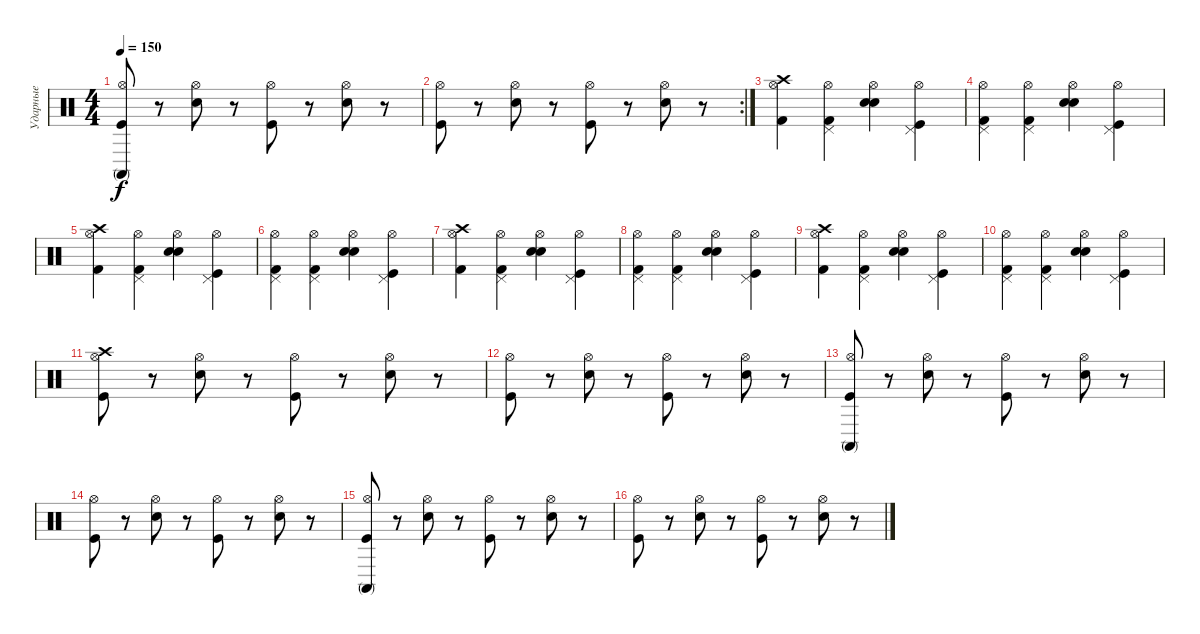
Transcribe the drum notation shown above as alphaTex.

\track ("Ударные" "Ударные") {instrument percussion}
\staff {score}
\articulation defaults
\ts (4 4)
\tempo 150
\clef neutral
\ks c
("Hi-Hat (open)" "Kick (hit)" "Conga high (mute)").8{dy f} r.8 ("Hi-Hat (open)" "Snare (hit) 2").8 r.8 ("Hi-Hat (open)" "Kick (hit)").8 r.8 ("Hi-Hat (open)" "Snare (hit) 2").8 r.8 |
\rc 2
("Hi-Hat (open)" "Kick (hit)").8 r.8 ("Hi-Hat (open)" "Snare (hit) 2").8 r.8 ("Hi-Hat (open)" "Kick (hit)").8 r.8 ("Hi-Hat (open)" "Snare (hit) 2").8 r.8 |
("Kick (hit) 2" "Crash high (hit)" "Hi-Hat (open)").4 ("Kick (hit) 2" "Pedal Hi-Hat (hit)" "Hi-Hat (open)").4 ("Snare (hit) 2" "Electric Snare (hit)" "Hi-Hat (open)").4 ("Kick (hit)" "Pedal Hi-Hat (hit)" "Hi-Hat (open)").4 |
("Kick (hit) 2" "Pedal Hi-Hat (hit)" "Hi-Hat (open)").4 ("Kick (hit) 2" "Pedal Hi-Hat (hit)" "Hi-Hat (open)").4 ("Snare (hit) 2" "Electric Snare (hit)" "Hi-Hat (open)").4 ("Kick (hit)" "Pedal Hi-Hat (hit)" "Hi-Hat (open)").4 |
("Kick (hit) 2" "Crash high (hit)" "Hi-Hat (open)").4 ("Kick (hit) 2" "Pedal Hi-Hat (hit)" "Hi-Hat (open)").4 ("Snare (hit) 2" "Electric Snare (hit)" "Hi-Hat (open)").4 ("Kick (hit)" "Pedal Hi-Hat (hit)" "Hi-Hat (open)").4 |
("Kick (hit) 2" "Pedal Hi-Hat (hit)" "Hi-Hat (open)").4 ("Kick (hit) 2" "Pedal Hi-Hat (hit)" "Hi-Hat (open)").4 ("Snare (hit) 2" "Electric Snare (hit)" "Hi-Hat (open)").4 ("Kick (hit)" "Pedal Hi-Hat (hit)" "Hi-Hat (open)").4 |
("Kick (hit) 2" "Crash high (hit)" "Hi-Hat (open)").4 ("Kick (hit) 2" "Pedal Hi-Hat (hit)" "Hi-Hat (open)").4 ("Snare (hit) 2" "Electric Snare (hit)" "Hi-Hat (open)").4 ("Kick (hit)" "Pedal Hi-Hat (hit)" "Hi-Hat (open)").4 |
("Kick (hit) 2" "Pedal Hi-Hat (hit)" "Hi-Hat (open)").4 ("Kick (hit) 2" "Pedal Hi-Hat (hit)" "Hi-Hat (open)").4 ("Snare (hit) 2" "Electric Snare (hit)" "Hi-Hat (open)").4 ("Kick (hit)" "Pedal Hi-Hat (hit)" "Hi-Hat (open)").4 |
("Kick (hit) 2" "Crash high (hit)" "Hi-Hat (open)").4 ("Kick (hit) 2" "Pedal Hi-Hat (hit)" "Hi-Hat (open)").4 ("Snare (hit) 2" "Electric Snare (hit)" "Hi-Hat (open)").4 ("Kick (hit)" "Pedal Hi-Hat (hit)" "Hi-Hat (open)").4 |
("Kick (hit) 2" "Pedal Hi-Hat (hit)" "Hi-Hat (open)").4 ("Kick (hit) 2" "Pedal Hi-Hat (hit)" "Hi-Hat (open)").4 ("Snare (hit) 2" "Electric Snare (hit)" "Hi-Hat (open)").4 ("Kick (hit)" "Pedal Hi-Hat (hit)" "Hi-Hat (open)").4 |
("Hi-Hat (open)" "Kick (hit)" "Crash high (hit)").8 r.8 ("Hi-Hat (open)" "Snare (hit) 2").8 r.8 ("Hi-Hat (open)" "Kick (hit)").8 r.8 ("Hi-Hat (open)" "Snare (hit) 2").8 r.8 |
("Hi-Hat (open)" "Kick (hit)").8 r.8 ("Hi-Hat (open)" "Snare (hit) 2").8 r.8 ("Hi-Hat (open)" "Kick (hit)").8 r.8 ("Hi-Hat (open)" "Snare (hit) 2").8 r.8 |
("Hi-Hat (open)" "Kick (hit)" "Conga high (mute)").8 r.8 ("Hi-Hat (open)" "Snare (hit) 2").8 r.8 ("Hi-Hat (open)" "Kick (hit)").8 r.8 ("Hi-Hat (open)" "Snare (hit) 2").8 r.8 |
("Hi-Hat (open)" "Kick (hit)").8 r.8 ("Hi-Hat (open)" "Snare (hit) 2").8 r.8 ("Hi-Hat (open)" "Kick (hit)").8 r.8 ("Hi-Hat (open)" "Snare (hit) 2").8 r.8 |
("Hi-Hat (open)" "Kick (hit)" "Conga high (mute)").8 r.8 ("Hi-Hat (open)" "Snare (hit) 2").8 r.8 ("Hi-Hat (open)" "Kick (hit)").8 r.8 ("Hi-Hat (open)" "Snare (hit) 2").8 r.8 |
("Hi-Hat (open)" "Kick (hit)").8 r.8 ("Hi-Hat (open)" "Snare (hit) 2").8 r.8 ("Hi-Hat (open)" "Kick (hit)").8 r.8 ("Hi-Hat (open)" "Snare (hit) 2").8 r.8
